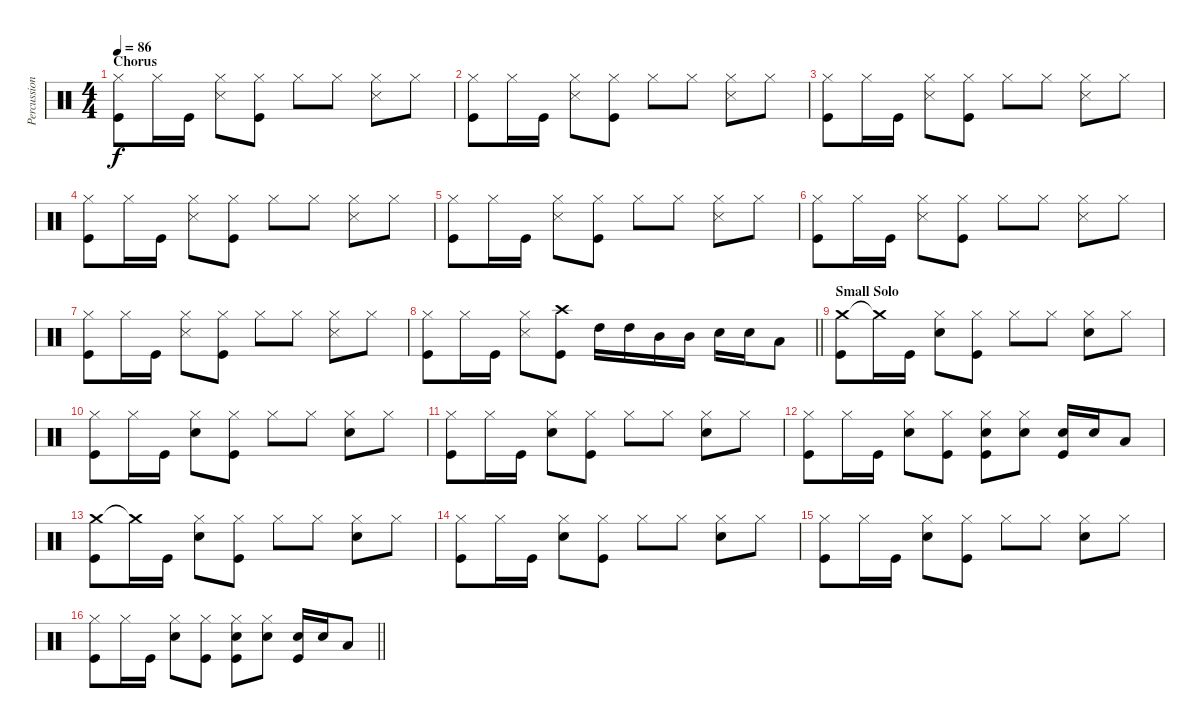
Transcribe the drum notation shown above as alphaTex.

\track ("Percussion" "Percussion") {instrument percussion}
\staff {score}
\articulation defaults
\ts (4 4)
\section ("" "Chorus")
\tempo 86
\clef neutral
\ks c
("Hi-Hat (closed)" "Kick (hit)").8{dy f} "Hi-Hat (closed)".16 "Kick (hit)".16 ("Hi-Hat (closed)" "Snare (side stick) 3").8 ("Hi-Hat (closed)" "Kick (hit)").8 "Hi-Hat (closed)".8 "Hi-Hat (closed)".8 ("Hi-Hat (closed)" "Snare (side stick) 3").8 "Hi-Hat (closed)".8 |
("Hi-Hat (closed)" "Kick (hit)").8 "Hi-Hat (closed)".16 "Kick (hit)".16 ("Hi-Hat (closed)" "Snare (side stick) 3").8 ("Hi-Hat (closed)" "Kick (hit)").8 "Hi-Hat (closed)".8 "Hi-Hat (closed)".8 ("Hi-Hat (closed)" "Snare (side stick) 3").8 "Hi-Hat (closed)".8 |
("Hi-Hat (closed)" "Kick (hit)").8 "Hi-Hat (closed)".16 "Kick (hit)".16 ("Hi-Hat (closed)" "Snare (side stick) 3").8 ("Hi-Hat (closed)" "Kick (hit)").8 "Hi-Hat (closed)".8 "Hi-Hat (closed)".8 ("Hi-Hat (closed)" "Snare (side stick) 3").8 "Hi-Hat (closed)".8 |
("Hi-Hat (closed)" "Kick (hit)").8 "Hi-Hat (closed)".16 "Kick (hit)".16 ("Hi-Hat (closed)" "Snare (side stick) 3").8 ("Hi-Hat (closed)" "Kick (hit)").8 "Hi-Hat (closed)".8 "Hi-Hat (closed)".8 ("Hi-Hat (closed)" "Snare (side stick) 3").8 "Hi-Hat (closed)".8 |
("Hi-Hat (closed)" "Kick (hit)").8 "Hi-Hat (closed)".16 "Kick (hit)".16 ("Hi-Hat (closed)" "Snare (side stick) 3").8 ("Hi-Hat (closed)" "Kick (hit)").8 "Hi-Hat (closed)".8 "Hi-Hat (closed)".8 ("Hi-Hat (closed)" "Snare (side stick) 3").8 "Hi-Hat (closed)".8 |
("Hi-Hat (closed)" "Kick (hit)").8 "Hi-Hat (closed)".16 "Kick (hit)".16 ("Hi-Hat (closed)" "Snare (side stick) 3").8 ("Hi-Hat (closed)" "Kick (hit)").8 "Hi-Hat (closed)".8 "Hi-Hat (closed)".8 ("Hi-Hat (closed)" "Snare (side stick) 3").8 "Hi-Hat (closed)".8 |
("Hi-Hat (closed)" "Kick (hit)").8 "Hi-Hat (closed)".16 "Kick (hit)".16 ("Hi-Hat (closed)" "Snare (side stick) 3").8 ("Hi-Hat (closed)" "Kick (hit)").8 "Hi-Hat (closed)".8 "Hi-Hat (closed)".8 ("Hi-Hat (closed)" "Snare (side stick) 3").8 "Hi-Hat (closed)".8 |
\barLineRight lightlight
("Hi-Hat (closed)" "Kick (hit)").8 "Hi-Hat (closed)".16 "Kick (hit)".16 ("Hi-Hat (closed)" "Snare (side stick) 3").8 ("Crash high (hit)" "Kick (hit)").8 "High Tom (hit)".16 "High Tom (hit)".16 "Mid Tom (hit)".16 "Mid Tom (hit)".16 "Snare (hit) 2".16 "Snare (hit) 2".16 "Low Tom (hit)".8 |
\section ("" "Small Solo")
("Crash medium (hit)" "Kick (hit)").8 "Crash medium (hit)"{t}.16 "Kick (hit)".16 ("Hi-Hat (closed)" "Snare (hit) 2").8 ("Hi-Hat (closed)" "Kick (hit)").8 "Hi-Hat (closed)".8 "Hi-Hat (closed)".8 ("Hi-Hat (closed)" "Snare (hit) 2").8 "Hi-Hat (closed)".8 |
("Hi-Hat (closed)" "Kick (hit)").8 "Hi-Hat (closed)".16 "Kick (hit)".16 ("Hi-Hat (closed)" "Snare (hit) 2").8 ("Hi-Hat (closed)" "Kick (hit)").8 "Hi-Hat (closed)".8 "Hi-Hat (closed)".8 ("Hi-Hat (closed)" "Snare (hit) 2").8 "Hi-Hat (closed)".8 |
("Hi-Hat (closed)" "Kick (hit)").8 "Hi-Hat (closed)".16 "Kick (hit)".16 ("Hi-Hat (closed)" "Snare (hit) 2").8 ("Hi-Hat (closed)" "Kick (hit)").8 "Hi-Hat (closed)".8 "Hi-Hat (closed)".8 ("Hi-Hat (closed)" "Snare (hit) 2").8 "Hi-Hat (closed)".8 |
("Hi-Hat (closed)" "Kick (hit)").8 "Hi-Hat (closed)".16 "Kick (hit)".16 ("Hi-Hat (closed)" "Snare (hit) 2").8 ("Hi-Hat (closed)" "Kick (hit)").8 ("Hi-Hat (closed)" "Snare (hit) 2" "Kick (hit)").8 ("Hi-Hat (closed)" "Snare (hit) 2").8 ("Snare (hit) 2" "Kick (hit)").16 "Snare (hit) 2".16 "Low Tom (hit)".8 |
("Crash medium (hit)" "Kick (hit)").8 "Crash medium (hit)"{t}.16 "Kick (hit)".16 ("Hi-Hat (closed)" "Snare (hit) 2").8 ("Hi-Hat (closed)" "Kick (hit)").8 "Hi-Hat (closed)".8 "Hi-Hat (closed)".8 ("Hi-Hat (closed)" "Snare (hit) 2").8 "Hi-Hat (closed)".8 |
("Hi-Hat (closed)" "Kick (hit)").8 "Hi-Hat (closed)".16 "Kick (hit)".16 ("Hi-Hat (closed)" "Snare (hit) 2").8 ("Hi-Hat (closed)" "Kick (hit)").8 "Hi-Hat (closed)".8 "Hi-Hat (closed)".8 ("Hi-Hat (closed)" "Snare (hit) 2").8 "Hi-Hat (closed)".8 |
("Hi-Hat (closed)" "Kick (hit)").8 "Hi-Hat (closed)".16 "Kick (hit)".16 ("Hi-Hat (closed)" "Snare (hit) 2").8 ("Hi-Hat (closed)" "Kick (hit)").8 "Hi-Hat (closed)".8 "Hi-Hat (closed)".8 ("Hi-Hat (closed)" "Snare (hit) 2").8 "Hi-Hat (closed)".8 |
\barLineRight lightlight
("Hi-Hat (closed)" "Kick (hit)").8 "Hi-Hat (closed)".16 "Kick (hit)".16 ("Hi-Hat (closed)" "Snare (hit) 2").8 ("Hi-Hat (closed)" "Kick (hit)").8 ("Hi-Hat (closed)" "Snare (hit) 2" "Kick (hit)").8 ("Hi-Hat (closed)" "Snare (hit) 2").8 ("Snare (hit) 2" "Kick (hit)").16 "Snare (hit) 2".16 "Low Tom (hit)".8
